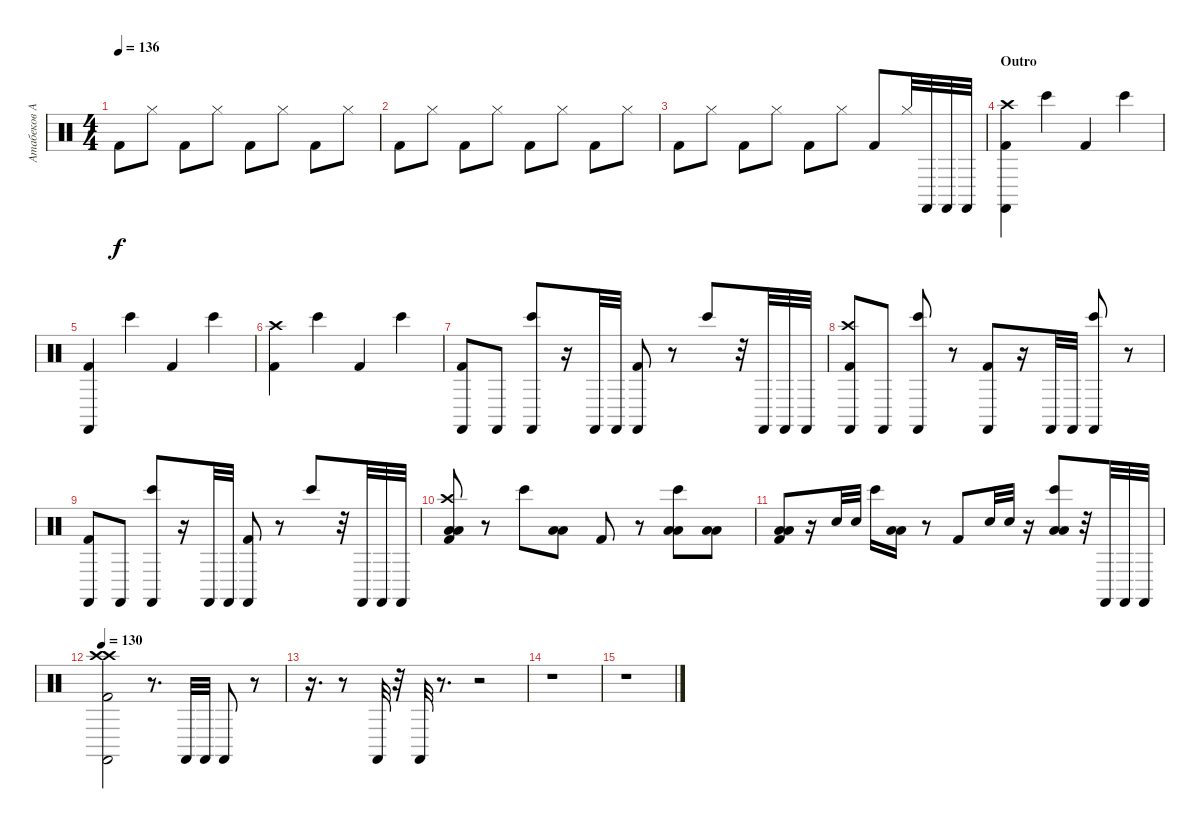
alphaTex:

\track ("Атабеков Андрей - Барабаны" "Атабеков А") {instrument percussion}
\staff {score}
\articulation defaults
\ts (4 4)
\tempo 136
\clef neutral
\ks c "Kick (hit) 2".8{dy f} "Hi-Hat (closed)".8 "Kick (hit) 2".8 "Hi-Hat (closed)".8 "Kick (hit) 2".8 "Hi-Hat (closed)".8 "Kick (hit) 2".8 "Hi-Hat (closed)".8
|
"Kick (hit) 2".8 "Hi-Hat (closed)".8 "Kick (hit) 2".8 "Hi-Hat (closed)".8 "Kick (hit) 2".8 "Hi-Hat (closed)".8 "Kick (hit) 2".8 "Hi-Hat (closed)".8 |
"Kick (hit) 2".8 "Hi-Hat (closed)".8 "Kick (hit) 2".8 "Hi-Hat (closed)".8 "Kick (hit) 2".8 "Hi-Hat (closed)".8 "Kick (hit) 2".8 "Hi-Hat (closed)".32 "Castanets (hit)".32 "Castanets (hit)".32 "Castanets (hit)".32 |
\section ("" "Outro")
("Kick (hit) 2" "Castanets (hit)" "Crash high (hit)").4 "Bongo High (hit)".4 "Kick (hit) 2".4 "Bongo High (hit)".4 |
("Kick (hit) 2" "Castanets (hit)").4 "Bongo High (hit)".4 "Kick (hit) 2".4 "Bongo High (hit)".4 |
("Kick (hit) 2" "Crash high (hit)").4 "Bongo High (hit)".4 "Kick (hit) 2".4 "Bongo High (hit)".4 |
("Kick (hit) 2" "Castanets (hit)").8 "Castanets (hit)".8 ("Bongo High (hit)" "Castanets (hit)").8 r.16 "Castanets (hit)".32 "Castanets (hit)".32 ("Kick (hit) 2" "Castanets (hit)").8 r.8 "Bongo High (hit)".8 r.32 "Castanets (hit)".32 "Castanets (hit)".32 "Castanets (hit)".32 |
("Kick (hit) 2" "Crash high (hit)" "Castanets (hit)").8 "Castanets (hit)".8 ("Bongo High (hit)" "Castanets (hit)").8 r.8 ("Kick (hit) 2" "Castanets (hit)").8 r.16 "Castanets (hit)".32 "Castanets (hit)".32 ("Bongo High (hit)" "Castanets (hit)").8 r.8 |
("Kick (hit) 2" "Castanets (hit)").8 "Castanets (hit)".8 ("Bongo High (hit)" "Castanets (hit)").8 r.16 "Castanets (hit)".32 "Castanets (hit)".32 ("Kick (hit) 2" "Castanets (hit)").8 r.8 "Bongo High (hit)".8 r.32 "Castanets (hit)".32 "Castanets (hit)".32 "Castanets (hit)".32 |
("Kick (hit) 2" "Crash high (hit)" "Low Floor Tom (hit)" "Low Floor Tom (hit)").8 r.8 "Bongo High (hit)".8 ("Low Floor Tom (hit)" "Low Floor Tom (hit)").8 "Kick (hit) 2".8 r.8 ("Bongo High (hit)" "Low Floor Tom (hit)" "Low Floor Tom (hit)").8 ("Low Floor Tom (hit)" "Low Floor Tom (hit)").8 |
("Kick (hit) 2" "Low Floor Tom (hit)" "Low Floor Tom (hit)").8 r.16 "Snare (hit) 2".32 "Snare (hit) 2".32 "Bongo High (hit)".16 ("Low Tom (hit)" "Low Tom (hit)").16 r.8 "Kick (hit) 2".8 "Snare (hit) 2".32 "Snare (hit) 2".32 r.16 ("Bongo High (hit)" "Low Tom (hit)" "Low Tom (hit)").8 r.32 "Castanets (hit)".32 "Castanets (hit)".32 "Castanets (hit)".32 |
\tempo 130
("Kick (hit) 2" "Castanets (hit)" "Crash high (hit)" "Crash high (hit)").2 r.8{d} "Castanets (hit)".32 "Castanets (hit)".32 "Castanets (hit)".8 r.8 |
r.16{d} r.8 "Castanets (hit)".32 r.32 "Castanets (hit)".32 r.8{d} r.2 |
r.1 |
r.1
